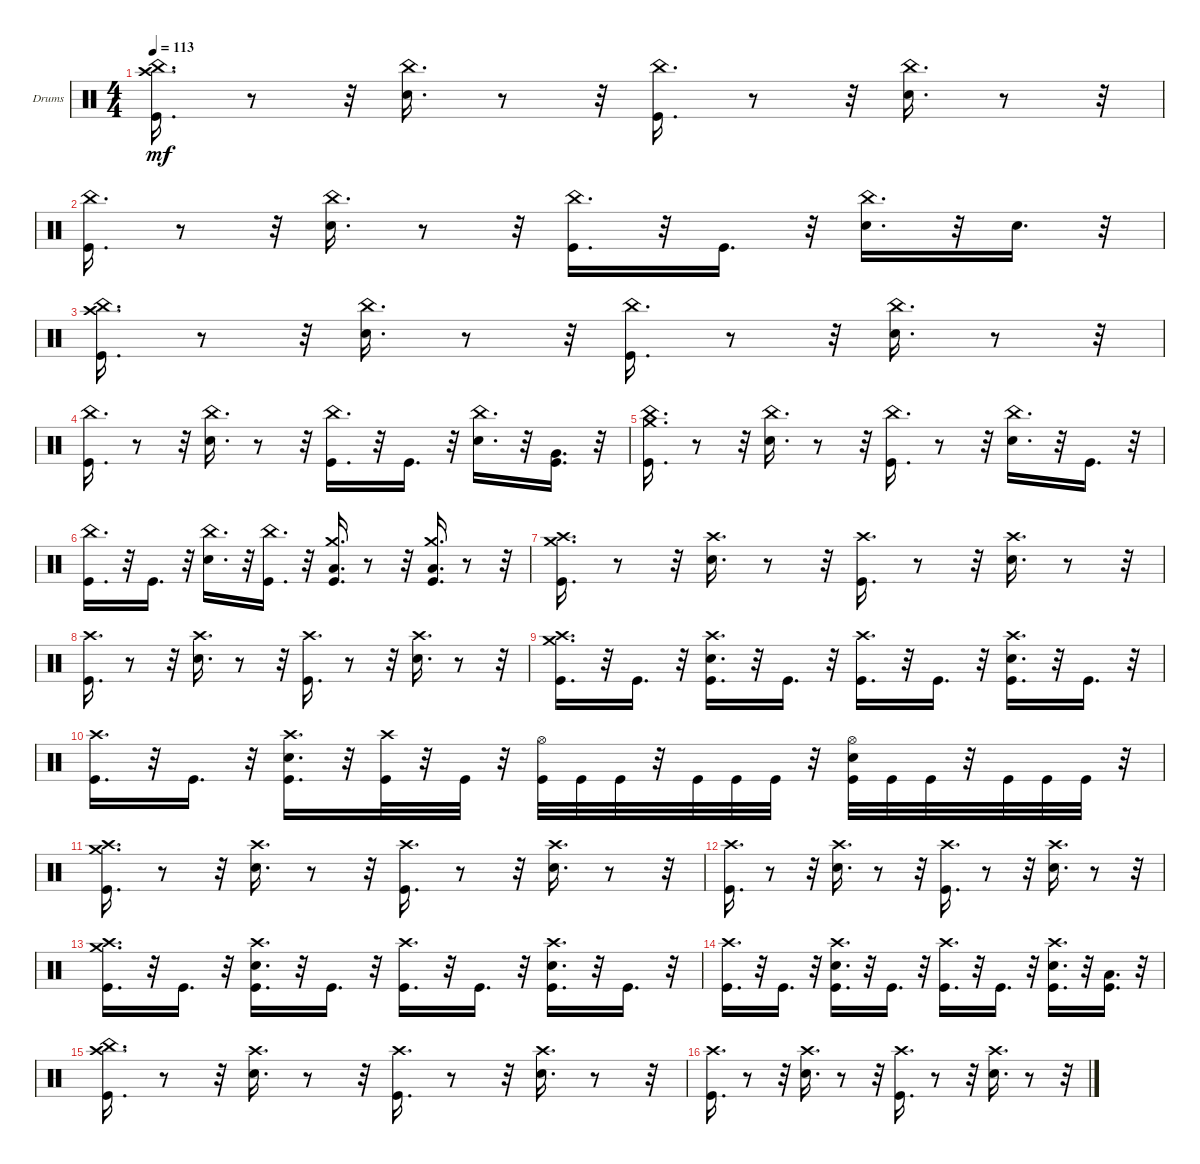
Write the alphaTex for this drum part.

\bracketExtendMode groupsimilarinstruments
\firstSystemTrackNameOrientation horizontal
\otherSystemsTrackNameOrientation horizontal
\track ("Drumkit" "Drums") {instrument percussion}
\staff {score}
\articulation defaults
\ts (4 4)
\tempo 113
\clef neutral
\ks c
("Crash high (hit)" "China (hit)" "Kick (hit)").16{d dy mf} r.8 r.32 ("China (hit)" "Snare (hit) 2").16{d} r.8 r.32 ("China (hit)" "Kick (hit)").16{d} r.8 r.32 ("China (hit)" "Snare (hit) 2").16{d} r.8 r.32 |
("China (hit)" "Kick (hit)").16{d} r.8 r.32 ("China (hit)" "Snare (hit) 2").16{d} r.8 r.32 ("China (hit)" "Kick (hit)").16{d} r.32 "Kick (hit)".16{d} r.32 ("China (hit)" "Snare (hit) 2").16{d} r.32 "Snare (hit) 2".16{d} r.32 |
("Crash high (hit)" "China (hit)" "Kick (hit)").16{d} r.8 r.32 ("China (hit)" "Snare (hit) 2").16{d} r.8 r.32 ("China (hit)" "Kick (hit)").16{d} r.8 r.32 ("China (hit)" "Snare (hit) 2").16{d} r.8 r.32 |
("China (hit)" "Kick (hit)").16{d} r.8 r.32 ("China (hit)" "Snare (hit) 2").16{d} r.8 r.32 ("China (hit)" "Kick (hit)").16{d} r.32 "Kick (hit)".16{d} r.32 ("China (hit)" "Snare (hit) 2").16{d} r.32 ("Very Low Tom (hit)" "Kick (hit)").16{d} r.32 |
("Kick (hit)" "China (hit)" "Crash medium (hit)").16{d} r.8 r.32 ("China (hit)" "Snare (hit) 2").16{d} r.8 r.32 ("China (hit)" "Kick (hit)").16{d} r.8 r.32 ("China (hit)" "Snare (hit) 2").16{d} r.32 "Kick (hit)".16{d} r.32 |
("China (hit)" "Kick (hit)").16{d} r.32 "Kick (hit)".16{d} r.32 ("China (hit)" "Snare (hit) 2").16{d} r.32 ("China (hit)" "Kick (hit)").16{d} r.32 ("Kick (hit)" "Low Tom (hit)" "Crash medium (hit)").16{d} r.8 r.32 ("Crash medium (hit)" "Kick (hit)" "Low Tom (hit)").16{d} r.8 r.32 |
("Kick (hit)" "Crash high (hit)" "Crash medium (hit)").16{d} r.8 r.32 ("Crash high (hit)" "Snare (hit) 2").16{d} r.8 r.32 ("Crash high (hit)" "Kick (hit)").16{d} r.8 r.32 ("Crash high (hit)" "Snare (hit) 2").16{d} r.8 r.32 |
("Crash high (hit)" "Kick (hit)").16{d} r.8 r.32 ("Crash high (hit)" "Snare (hit) 2").16{d} r.8 r.32 ("Crash high (hit)" "Kick (hit)").16{d} r.8 r.32 ("Crash high (hit)" "Snare (hit) 2").16{d} r.8 r.32 |
("Crash medium (hit)" "Crash high (hit)" "Kick (hit)").16{d} r.32 "Kick (hit)".16{d} r.32 ("Crash high (hit)" "Snare (hit) 2" "Kick (hit)").16{d} r.32 "Kick (hit)".16{d} r.32 ("Crash high (hit)" "Kick (hit)").16{d} r.32 "Kick (hit)".16{d} r.32 ("Crash high (hit)" "Snare (hit) 2" "Kick (hit)").16{d} r.32 "Kick (hit)".16{d} r.32 |
("Crash high (hit)" "Kick (hit)").16{d} r.32 "Kick (hit)".16{d} r.32 ("Crash high (hit)" "Snare (hit) 2" "Kick (hit)").16{d} r.32 ("Crash high (hit)" "Kick (hit)").32 r.32 "Kick (hit)".32 r.32 ("Hi-Hat (open)" "Kick (hit)").32 "Kick (hit)".32 "Kick (hit)".32 r.32 "Kick (hit)".32 "Kick (hit)".32 "Kick (hit)".32 r.32 ("Snare (hit) 2" "Hi-Hat (open)" "Kick (hit)").32 "Kick (hit)".32 "Kick (hit)".32 r.32 "Kick (hit)".32 "Kick (hit)".32 "Kick (hit)".32 r.32 |
("Kick (hit)" "Crash high (hit)" "Crash medium (hit)").16{d} r.8 r.32 ("Crash high (hit)" "Snare (hit) 2").16{d} r.8 r.32 ("Crash high (hit)" "Kick (hit)").16{d} r.8 r.32 ("Crash high (hit)" "Snare (hit) 2").16{d} r.8 r.32 |
("Crash high (hit)" "Kick (hit)").16{d} r.8 r.32 ("Crash high (hit)" "Snare (hit) 2").16{d} r.8 r.32 ("Crash high (hit)" "Kick (hit)").16{d} r.8 r.32 ("Crash high (hit)" "Snare (hit) 2").16{d} r.8 r.32 |
("Crash medium (hit)" "Crash high (hit)" "Kick (hit)").16{d} r.32 "Kick (hit)".16{d} r.32 ("Crash high (hit)" "Snare (hit) 2" "Kick (hit)").16{d} r.32 "Kick (hit)".16{d} r.32 ("Crash high (hit)" "Kick (hit)").16{d} r.32 "Kick (hit)".16{d} r.32 ("Crash high (hit)" "Snare (hit) 2" "Kick (hit)").16{d} r.32 "Kick (hit)".16{d} r.32 |
("Crash high (hit)" "Kick (hit)").16{d} r.32 "Kick (hit)".16{d} r.32 ("Crash high (hit)" "Snare (hit) 2" "Kick (hit)").16{d} r.32 "Kick (hit)".16{d} r.32 ("Crash high (hit)" "Kick (hit)").16{d} r.32 "Kick (hit)".16{d} r.32 ("Crash high (hit)" "Snare (hit) 2" "Kick (hit)").16{d} r.32 ("Low Tom (hit)" "Kick (hit)").16{d} r.32 |
("Crash high (hit)" "China (hit)" "Kick (hit)").16{d} r.8 r.32 ("Crash high (hit)" "Snare (hit) 2").16{d} r.8 r.32 ("Crash high (hit)" "Kick (hit)").16{d} r.8 r.32 ("Crash high (hit)" "Snare (hit) 2").16{d} r.8 r.32 |
("Crash high (hit)" "Kick (hit)").16{d} r.8 r.32 ("Crash high (hit)" "Snare (hit) 2").16{d} r.8 r.32 ("Crash high (hit)" "Kick (hit)").16{d} r.8 r.32 ("Crash high (hit)" "Snare (hit) 2").16{d} r.8 r.32
